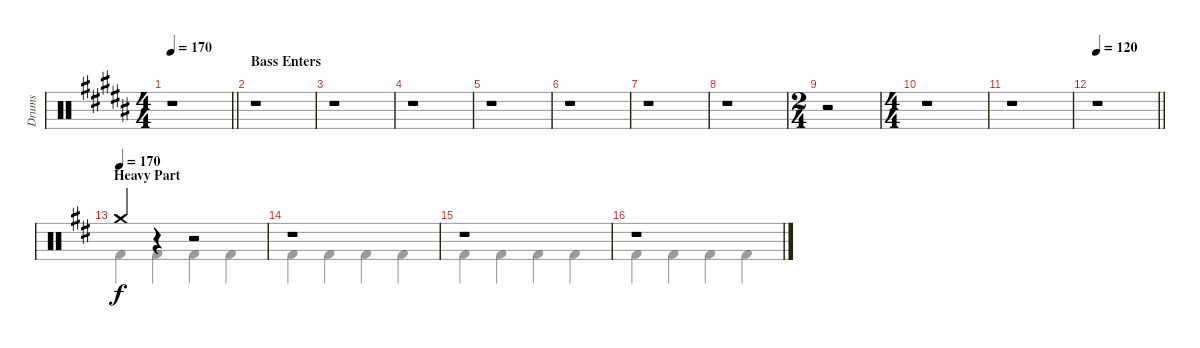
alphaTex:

\track ("Drums" "Drums") {instrument percussion}
\staff {score}
\articulation defaults
\voice
\ts (4 4)
\tempo 170
\clef neutral
\barLineRight lightlight
\ks b
r.1{dy f} |
\section ("" "Bass Enters")
r.1 |
r.1 |
r.1 |
r.1 |
r.1 |
r.1 |
r.1 |
\ts (2 4)
r.2 |
\ts (4 4)
r.1 |
r.1 |
\tempo 120
\barLineRight lightlight
r.1 |
\section ("" "Heavy Part")
\tempo 170
\ks d "Crash medium (hit)".4
r.4 r.2 |
r.1 |
r.1 |
r.1
\voice
\clef neutral
\ottava regular
\simile none
\barLineRight lightlight
\ks b
|
|
|
|
|
|
|
|
|
|
|
\barLineRight lightlight
|
\ks d "Kick (hit) 2".4 "Kick (hit) 2".4 "Kick (hit) 2".4 "Kick (hit) 2".4
|
"Kick (hit) 2".4 "Kick (hit) 2".4 "Kick (hit) 2".4 "Kick (hit) 2".4 |
"Kick (hit) 2".4 "Kick (hit) 2".4 "Kick (hit) 2".4 "Kick (hit) 2".4 |
"Kick (hit) 2".4 "Kick (hit) 2".4 "Kick (hit) 2".4 "Kick (hit) 2".4
